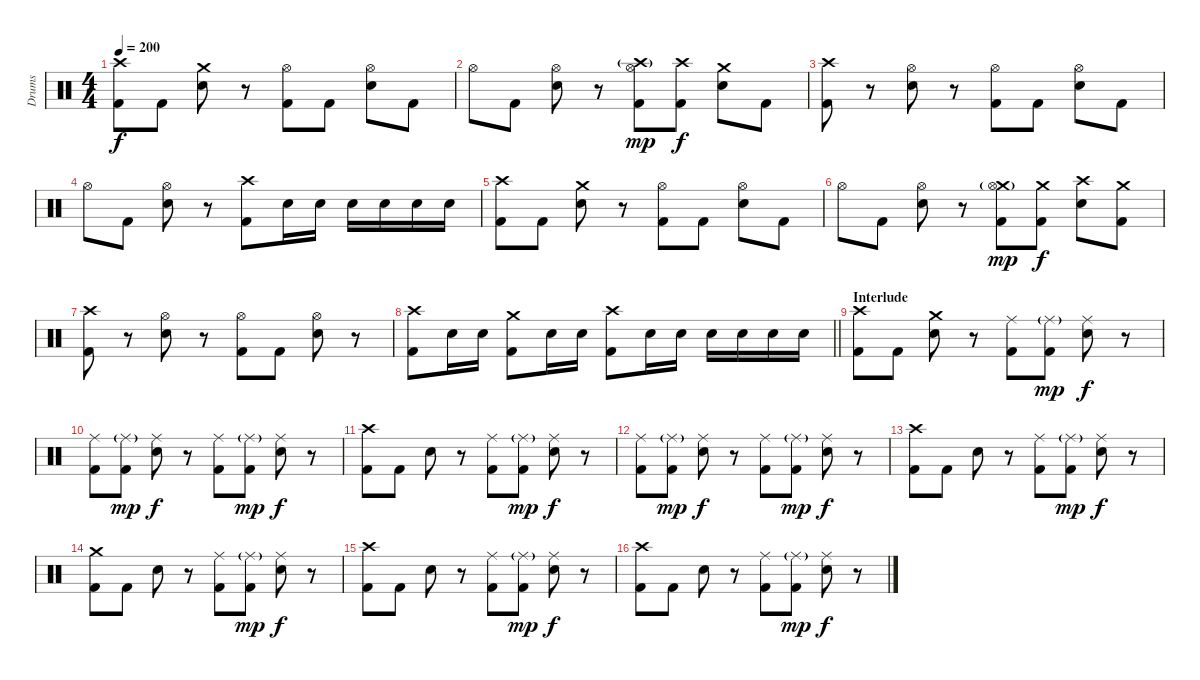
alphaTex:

\track ("Drums" "Drums") {instrument percussion}
\staff {score}
\articulation defaults
\ts (4 4)
\tempo 200
\clef neutral
\ks c
("Crash high (hit)" "Kick (hit) 2").8{dy f} "Kick (hit) 2".8 ("Crash medium (hit)" "Electric Snare (hit)").8 r.8 ("Hi-Hat (open)" "Kick (hit) 2").8 "Kick (hit) 2".8 ("Hi-Hat (open)" "Electric Snare (hit)").8 "Kick (hit) 2".8 |
"Hi-Hat (open)".8 "Kick (hit) 2".8 ("Hi-Hat (open)" "Electric Snare (hit)").8 r.8 ("Crash high (hit)"{g} "Hi-Hat (open)" "Kick (hit) 2").8{dy mp} ("Crash high (hit)" "Kick (hit) 2").8{dy f} ("Crash medium (hit)" "Electric Snare (hit)").8 "Kick (hit) 2".8 |
("Crash high (hit)" "Kick (hit) 2").8 r.8 ("Hi-Hat (open)" "Electric Snare (hit)").8 r.8 ("Hi-Hat (open)" "Kick (hit) 2").8 "Kick (hit) 2".8 ("Hi-Hat (open)" "Electric Snare (hit)").8 "Kick (hit) 2".8 |
"Hi-Hat (open)".8 "Kick (hit) 2".8 ("Hi-Hat (open)" "Electric Snare (hit)").8 r.8 ("Crash high (hit)" "Kick (hit) 2").8 "Electric Snare (hit)".16 "Electric Snare (hit)".16 "Electric Snare (hit)".16 "Electric Snare (hit)".16 "Electric Snare (hit)".16 "Electric Snare (hit)".16 |
("Crash high (hit)" "Kick (hit) 2").8 "Kick (hit) 2".8 ("Crash medium (hit)" "Electric Snare (hit)").8 r.8 ("Hi-Hat (open)" "Kick (hit) 2").8 "Kick (hit) 2".8 ("Hi-Hat (open)" "Electric Snare (hit)").8 "Kick (hit) 2".8 |
"Hi-Hat (open)".8 "Kick (hit) 2".8 ("Hi-Hat (open)" "Electric Snare (hit)").8 r.8 ("Crash medium (hit)"{g} "Hi-Hat (open)" "Kick (hit) 2").8{dy mp} ("Crash medium (hit)" "Kick (hit) 2").8{dy f} ("Crash high (hit)" "Electric Snare (hit)").8 ("Crash medium (hit)" "Kick (hit) 2").8 |
("Crash high (hit)" "Kick (hit) 2").8 r.8 ("Hi-Hat (open)" "Electric Snare (hit)").8 r.8 ("Hi-Hat (open)" "Kick (hit) 2").8 "Kick (hit) 2".8 ("Hi-Hat (open)" "Electric Snare (hit)").8 r.8 |
\barLineRight lightlight
("Crash high (hit)" "Kick (hit) 2").8 "Electric Snare (hit)".16 "Electric Snare (hit)".16 ("Crash medium (hit)" "Kick (hit) 2").8 "Electric Snare (hit)".16 "Electric Snare (hit)".16 ("Crash high (hit)" "Kick (hit) 2").8 "Electric Snare (hit)".16 "Electric Snare (hit)".16 "Electric Snare (hit)".16 "Electric Snare (hit)".16 "Electric Snare (hit)".16 "Electric Snare (hit)".16 |
\section ("" "Interlude")
("Crash high (hit)" "Kick (hit) 2").8 "Kick (hit) 2".8 ("Crash medium (hit)" "Electric Snare (hit)").8 r.8 ("Ride (middle)" "Kick (hit) 2").8 ("Ride (middle)"{g} "Kick (hit) 2").8{dy mp} ("Ride (middle)" "Electric Snare (hit)").8{dy f} r.8 |
("Ride (middle)" "Kick (hit) 2").8 ("Ride (middle)"{g} "Kick (hit) 2").8{dy mp} ("Ride (middle)" "Electric Snare (hit)").8{dy f} r.8 ("Ride (middle)" "Kick (hit) 2").8 ("Ride (middle)"{g} "Kick (hit) 2").8{dy mp} ("Ride (middle)" "Electric Snare (hit)").8{dy f} r.8 |
("Crash high (hit)" "Kick (hit) 2").8 "Kick (hit) 2".8 "Electric Snare (hit)".8 r.8 ("Ride (middle)" "Kick (hit) 2").8 ("Ride (middle)"{g} "Kick (hit) 2").8{dy mp} ("Ride (middle)" "Electric Snare (hit)").8{dy f} r.8 |
("Ride (middle)" "Kick (hit) 2").8 ("Ride (middle)"{g} "Kick (hit) 2").8{dy mp} ("Ride (middle)" "Electric Snare (hit)").8{dy f} r.8 ("Ride (middle)" "Kick (hit) 2").8 ("Ride (middle)"{g} "Kick (hit) 2").8{dy mp} ("Ride (middle)" "Electric Snare (hit)").8{dy f} r.8 |
("Crash high (hit)" "Kick (hit) 2").8 "Kick (hit) 2".8 "Electric Snare (hit)".8 r.8 ("Ride (middle)" "Kick (hit) 2").8 ("Ride (middle)"{g} "Kick (hit) 2").8{dy mp} ("Ride (middle)" "Electric Snare (hit)").8{dy f} r.8 |
("Crash medium (hit)" "Kick (hit) 2").8 "Kick (hit) 2".8 "Electric Snare (hit)".8 r.8 ("Ride (middle)" "Kick (hit) 2").8 ("Ride (middle)"{g} "Kick (hit) 2").8{dy mp} ("Ride (middle)" "Electric Snare (hit)").8{dy f} r.8 |
("Crash high (hit)" "Kick (hit) 2").8 "Kick (hit) 2".8 "Electric Snare (hit)".8 r.8 ("Ride (middle)" "Kick (hit) 2").8 ("Ride (middle)"{g} "Kick (hit) 2").8{dy mp} ("Ride (middle)" "Electric Snare (hit)").8{dy f} r.8 |
("Crash high (hit)" "Kick (hit) 2").8 "Kick (hit) 2".8 "Electric Snare (hit)".8 r.8 ("Ride (middle)" "Kick (hit) 2").8 ("Ride (middle)"{g} "Kick (hit) 2").8{dy mp} ("Ride (middle)" "Electric Snare (hit)").8{dy f} r.8
